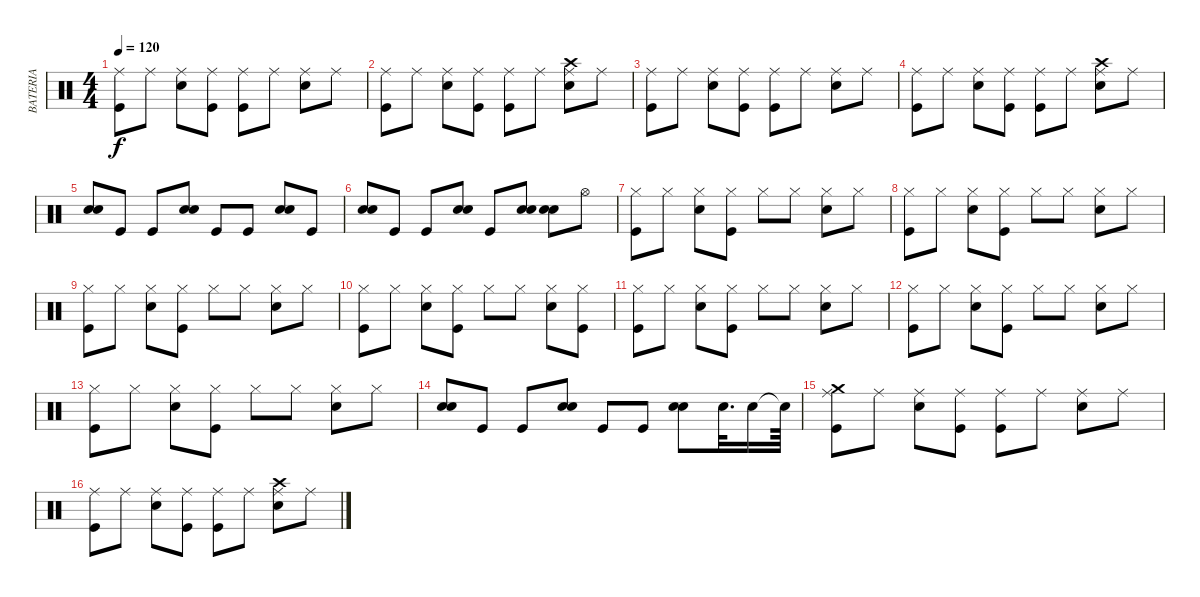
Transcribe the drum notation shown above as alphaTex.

\track ("BATERIA" "BATERIA") {instrument percussion}
\staff {score}
\articulation defaults
\ts (4 4)
\tempo 120
\clef neutral
\ks c
("Ride (middle)" "Kick (hit)").8{dy f} "Ride (middle)".8 ("Ride (middle)" "Snare (hit) 2").8 ("Ride (middle)" "Kick (hit)").8 ("Ride (middle)" "Kick (hit)").8 "Ride (middle)".8 ("Ride (middle)" "Snare (hit) 2").8 "Ride (middle)".8 |
("Ride (middle)" "Kick (hit)").8 "Ride (middle)".8 ("Ride (middle)" "Snare (hit) 2").8 ("Ride (middle)" "Kick (hit)").8 ("Ride (middle)" "Kick (hit)").8 "Ride (middle)".8 ("Crash high (hit)" "Ride (middle)" "Snare (hit) 2").8 "Ride (middle)".8 |
("Ride (middle)" "Kick (hit)").8 "Ride (middle)".8 ("Ride (middle)" "Snare (hit) 2").8 ("Ride (middle)" "Kick (hit)").8 ("Ride (middle)" "Kick (hit)").8 "Ride (middle)".8 ("Ride (middle)" "Snare (hit) 2").8 "Ride (middle)".8 |
("Ride (middle)" "Kick (hit)").8 "Ride (middle)".8 ("Ride (middle)" "Snare (hit) 2").8 ("Ride (middle)" "Kick (hit)").8 ("Ride (middle)" "Kick (hit)").8 "Ride (middle)".8 ("Crash high (hit)" "Ride (middle)" "Snare (hit) 2").8 "Ride (middle)".8 |
("Snare (hit) 2" "Snare (hit) 2").8 "Kick (hit)".8 "Kick (hit)".8 ("Snare (hit) 2" "Snare (hit) 2").8 "Kick (hit)".8 "Kick (hit)".8 ("Snare (hit) 2" "Snare (hit) 2").8 "Kick (hit)".8 |
("Snare (hit) 2" "Snare (hit) 2").8 "Kick (hit)".8 "Kick (hit)".8 ("Snare (hit) 2" "Snare (hit) 2").8 "Kick (hit)".8 ("Snare (hit) 2" "Snare (hit) 2").8 ("Snare (hit) 2" "Snare (hit) 2").8 "Hi-Hat (open)".8 |
("Hi-Hat (closed)" "Kick (hit)").8 "Hi-Hat (closed)".8 ("Hi-Hat (closed)" "Snare (hit) 2").8 ("Hi-Hat (closed)" "Kick (hit)").8 "Hi-Hat (closed)".8 "Hi-Hat (closed)".8 ("Hi-Hat (closed)" "Snare (hit) 2").8 "Hi-Hat (closed)".8 |
("Hi-Hat (closed)" "Kick (hit)").8 "Hi-Hat (closed)".8 ("Hi-Hat (closed)" "Snare (hit) 2").8 ("Hi-Hat (closed)" "Kick (hit)").8 "Hi-Hat (closed)".8 "Hi-Hat (closed)".8 ("Hi-Hat (closed)" "Snare (hit) 2").8 "Hi-Hat (closed)".8 |
("Hi-Hat (closed)" "Kick (hit)").8 "Hi-Hat (closed)".8 ("Hi-Hat (closed)" "Snare (hit) 2").8 ("Hi-Hat (closed)" "Kick (hit)").8 "Hi-Hat (closed)".8 "Hi-Hat (closed)".8 ("Hi-Hat (closed)" "Snare (hit) 2").8 "Hi-Hat (closed)".8 |
("Hi-Hat (closed)" "Kick (hit)").8 "Hi-Hat (closed)".8 ("Hi-Hat (closed)" "Snare (hit) 2").8 ("Hi-Hat (closed)" "Kick (hit)").8 "Hi-Hat (closed)".8 "Hi-Hat (closed)".8 ("Hi-Hat (closed)" "Snare (hit) 2").8 ("Hi-Hat (closed)" "Kick (hit)").8 |
("Hi-Hat (closed)" "Kick (hit)").8 "Hi-Hat (closed)".8 ("Hi-Hat (closed)" "Snare (hit) 2").8 ("Hi-Hat (closed)" "Kick (hit)").8 "Hi-Hat (closed)".8 "Hi-Hat (closed)".8 ("Hi-Hat (closed)" "Snare (hit) 2").8 "Hi-Hat (closed)".8 |
("Hi-Hat (closed)" "Kick (hit)").8 "Hi-Hat (closed)".8 ("Hi-Hat (closed)" "Snare (hit) 2").8 ("Hi-Hat (closed)" "Kick (hit)").8 "Hi-Hat (closed)".8 "Hi-Hat (closed)".8 ("Hi-Hat (closed)" "Snare (hit) 2").8 "Hi-Hat (closed)".8 |
("Hi-Hat (closed)" "Kick (hit)").8 "Hi-Hat (closed)".8 ("Hi-Hat (closed)" "Snare (hit) 2").8 ("Hi-Hat (closed)" "Kick (hit)").8 "Hi-Hat (closed)".8 "Hi-Hat (closed)".8 ("Hi-Hat (closed)" "Snare (hit) 2").8 "Hi-Hat (closed)".8 |
("Snare (hit) 2" "Snare (hit) 2").8 "Kick (hit)".8 "Kick (hit)".8 ("Snare (hit) 2" "Snare (hit) 2").8 "Kick (hit)".8 "Kick (hit)".8 ("Snare (hit) 2" "Snare (hit) 2").8 "Snare (hit) 2".32{d} "Snare (hit) 2".16 "Snare (hit)"{t}.64 |
("Crash medium (hit)" "Ride (middle)" "Kick (hit)").8 "Ride (middle)".8 ("Ride (middle)" "Snare (hit) 2").8 ("Ride (middle)" "Kick (hit)").8 ("Ride (middle)" "Kick (hit)").8 "Ride (middle)".8 ("Ride (middle)" "Snare (hit) 2").8 "Ride (middle)".8 |
("Ride (middle)" "Kick (hit)").8 "Ride (middle)".8 ("Ride (middle)" "Snare (hit) 2").8 ("Ride (middle)" "Kick (hit)").8 ("Ride (middle)" "Kick (hit)").8 "Ride (middle)".8 ("Crash high (hit)" "Ride (middle)" "Snare (hit) 2").8 "Ride (middle)".8
